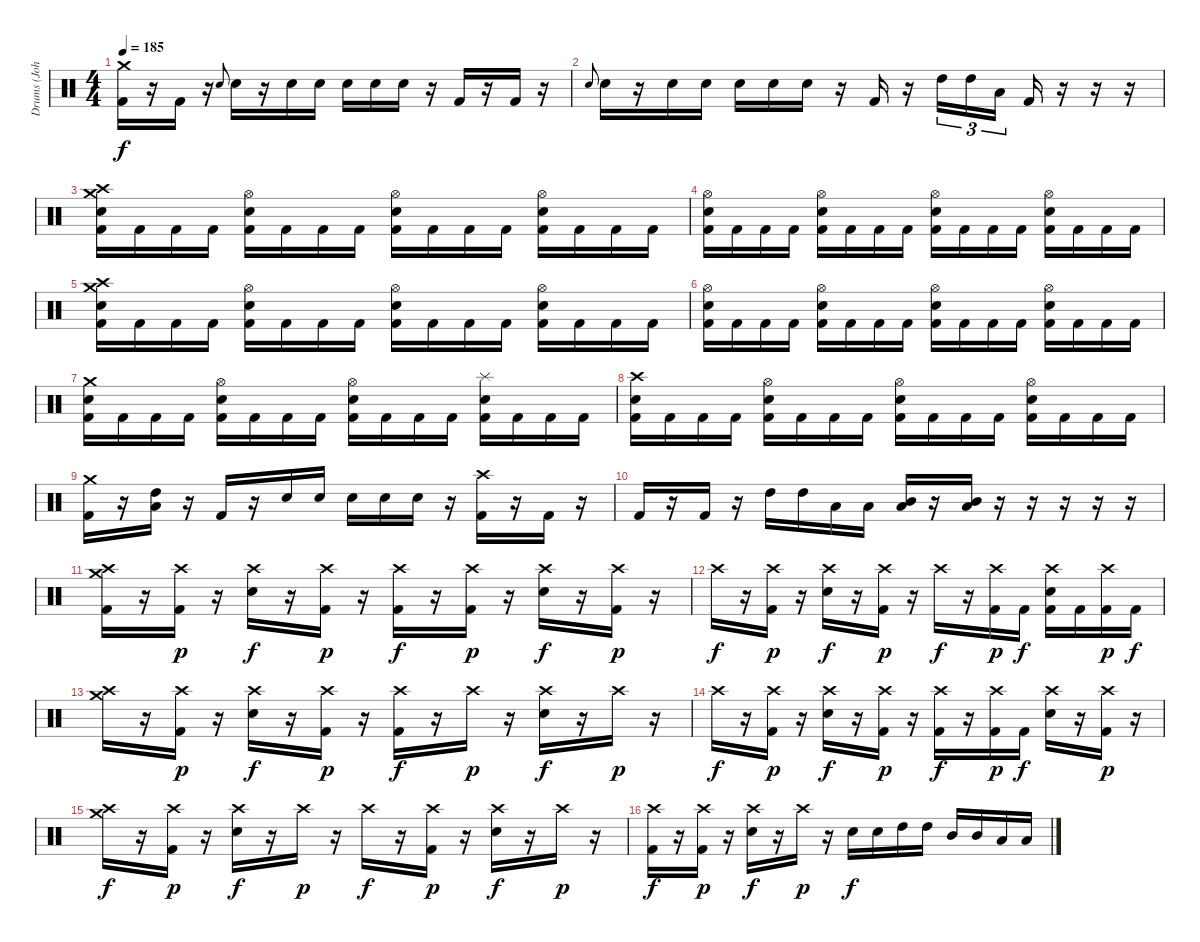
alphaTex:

\track ("Drums (Johno)" "Drums (Joh") {instrument percussion}
\staff {score}
\articulation defaults
\ts (4 4)
\tempo 185
\clef neutral
\ks c
("Crash medium (hit)" "Kick (hit) 2").16{dy f} r.16 "Kick (hit) 2".16 r.16 "Electric Snare (hit)".8{gr onbeat} "Electric Snare (hit)".16 r.16 "Electric Snare (hit)".16 "Electric Snare (hit)".16 "Electric Snare (hit)".16 "Electric Snare (hit)".16 "Electric Snare (hit)".16 r.16 "Kick (hit) 2".16 r.16 "Kick (hit) 2".16 r.16 |
"Electric Snare (hit)".8{gr onbeat} "Electric Snare (hit)".16 r.16 "Electric Snare (hit)".16 "Electric Snare (hit)".16 "Electric Snare (hit)".16 "Electric Snare (hit)".16 "Electric Snare (hit)".16 r.16 "Kick (hit) 2".16 r.16 "High Tom (hit)".16{tu (3 2)} "High Tom (hit)".16{tu (3 2)} "Low Floor Tom (hit)".16{tu (3 2)} "Kick (hit) 2".16 r.16 r.16 r.16 |
("Crash medium (hit)" "Crash high (hit)" "Electric Snare (hit)" "Kick (hit) 2").16 "Kick (hit) 2".16 "Kick (hit) 2".16 "Kick (hit) 2".16 ("Hi-Hat (open)" "Electric Snare (hit)" "Kick (hit) 2").16 "Kick (hit) 2".16 "Kick (hit) 2".16 "Kick (hit) 2".16 ("Hi-Hat (open)" "Electric Snare (hit)" "Kick (hit) 2").16 "Kick (hit) 2".16 "Kick (hit) 2".16 "Kick (hit) 2".16 ("Hi-Hat (open)" "Electric Snare (hit)" "Kick (hit) 2").16 "Kick (hit) 2".16 "Kick (hit) 2".16 "Kick (hit) 2".16 |
("Hi-Hat (open)" "Electric Snare (hit)" "Kick (hit) 2").16 "Kick (hit) 2".16 "Kick (hit) 2".16 "Kick (hit) 2".16 ("Hi-Hat (open)" "Electric Snare (hit)" "Kick (hit) 2").16 "Kick (hit) 2".16 "Kick (hit) 2".16 "Kick (hit) 2".16 ("Hi-Hat (open)" "Electric Snare (hit)" "Kick (hit) 2").16 "Kick (hit) 2".16 "Kick (hit) 2".16 "Kick (hit) 2".16 ("Hi-Hat (open)" "Electric Snare (hit)" "Kick (hit) 2").16 "Kick (hit) 2".16 "Kick (hit) 2".16 "Kick (hit) 2".16 |
("Crash high (hit)" "Crash medium (hit)" "Electric Snare (hit)" "Kick (hit) 2").16 "Kick (hit) 2".16 "Kick (hit) 2".16 "Kick (hit) 2".16 ("Hi-Hat (open)" "Electric Snare (hit)" "Kick (hit) 2").16 "Kick (hit) 2".16 "Kick (hit) 2".16 "Kick (hit) 2".16 ("Hi-Hat (open)" "Electric Snare (hit)" "Kick (hit) 2").16 "Kick (hit) 2".16 "Kick (hit) 2".16 "Kick (hit) 2".16 ("Hi-Hat (open)" "Electric Snare (hit)" "Kick (hit) 2").16 "Kick (hit) 2".16 "Kick (hit) 2".16 "Kick (hit) 2".16 |
("Hi-Hat (open)" "Electric Snare (hit)" "Kick (hit) 2").16 "Kick (hit) 2".16 "Kick (hit) 2".16 "Kick (hit) 2".16 ("Hi-Hat (open)" "Electric Snare (hit)" "Kick (hit) 2").16 "Kick (hit) 2".16 "Kick (hit) 2".16 "Kick (hit) 2".16 ("Hi-Hat (open)" "Electric Snare (hit)" "Kick (hit) 2").16 "Kick (hit) 2".16 "Kick (hit) 2".16 "Kick (hit) 2".16 ("Hi-Hat (open)" "Electric Snare (hit)" "Kick (hit) 2").16 "Kick (hit) 2".16 "Kick (hit) 2".16 "Kick (hit) 2".16 |
("Crash medium (hit)" "Electric Snare (hit)" "Kick (hit) 2").16 "Kick (hit) 2".16 "Kick (hit) 2".16 "Kick (hit) 2".16 ("Hi-Hat (open)" "Electric Snare (hit)" "Kick (hit) 2").16 "Kick (hit) 2".16 "Kick (hit) 2".16 "Kick (hit) 2".16 ("Hi-Hat (open)" "Electric Snare (hit)" "Kick (hit) 2").16 "Kick (hit) 2".16 "Kick (hit) 2".16 "Kick (hit) 2".16 ("Splash (hit)" "Electric Snare (hit)" "Kick (hit) 2").16 "Kick (hit) 2".16 "Kick (hit) 2".16 "Kick (hit) 2".16 |
("Crash high (hit)" "Electric Snare (hit)" "Kick (hit) 2").16 "Kick (hit) 2".16 "Kick (hit) 2".16 "Kick (hit) 2".16 ("Hi-Hat (open)" "Electric Snare (hit)" "Kick (hit) 2").16 "Kick (hit) 2".16 "Kick (hit) 2".16 "Kick (hit) 2".16 ("Hi-Hat (open)" "Electric Snare (hit)" "Kick (hit) 2").16 "Kick (hit) 2".16 "Kick (hit) 2".16 "Kick (hit) 2".16 ("Hi-Hat (open)" "Electric Snare (hit)" "Kick (hit) 2").16 "Kick (hit) 2".16 "Kick (hit) 2".16 "Kick (hit) 2".16 |
("Crash medium (hit)" "Kick (hit) 2").16 r.16 ("Low Floor Tom (hit)" "High Tom (hit)").16 r.16 "Kick (hit) 2".16 r.16 "Electric Snare (hit)".16 "Electric Snare (hit)".16 "Electric Snare (hit)".16 "Electric Snare (hit)".16 "Electric Snare (hit)".16 r.16 ("Crash high (hit)" "Kick (hit) 2").16 r.16 "Kick (hit) 2".16 r.16 |
"Kick (hit) 2".16 r.16 "Kick (hit) 2".16 r.16 "High Tom (hit)".16 "High Tom (hit)".16 "Low Floor Tom (hit)".16 "Low Floor Tom (hit)".16 ("Mid Tom (hit)" "Low Tom (hit)").16 r.16 ("Mid Tom (hit)" "Low Tom (hit)").16 r.16 r.16 r.16 r.16 r.16 |
("Crash medium (hit)" "Crash high (hit)" "Kick (hit) 2").16 r.16 ("Crash high (hit)" "Kick (hit) 2").16{dy p} r.16 ("Crash high (hit)" "Electric Snare (hit)").16{dy f} r.16 ("Crash high (hit)" "Kick (hit) 2").16{dy p} r.16 ("Crash high (hit)" "Kick (hit) 2").16{dy f} r.16 ("Crash high (hit)" "Kick (hit) 2").16{dy p} r.16 ("Crash high (hit)" "Electric Snare (hit)").16{dy f} r.16 ("Crash high (hit)" "Kick (hit) 2").16{dy p} r.16 |
"Crash high (hit)".16{dy f} r.16 ("Crash high (hit)" "Kick (hit) 2").16{dy p} r.16 ("Crash high (hit)" "Electric Snare (hit)").16{dy f} r.16 ("Crash high (hit)" "Kick (hit) 2").16{dy p} r.16 "Crash high (hit)".16{dy f} r.16 ("Crash high (hit)" "Kick (hit) 2").16{dy p} "Kick (hit) 2".16{dy f} ("Crash high (hit)" "Electric Snare (hit)" "Kick (hit) 2").16 "Kick (hit) 2".16 ("Crash high (hit)" "Kick (hit) 2").16{dy p} "Kick (hit) 2".16{dy f} |
("Crash medium (hit)" "Crash high (hit)").16 r.16 ("Crash high (hit)" "Kick (hit) 2").16{dy p} r.16 ("Crash high (hit)" "Electric Snare (hit)").16{dy f} r.16 ("Crash high (hit)" "Kick (hit) 2").16{dy p} r.16 ("Crash high (hit)" "Kick (hit) 2").16{dy f} r.16 "Crash high (hit)".16{dy p} r.16 ("Crash high (hit)" "Electric Snare (hit)").16{dy f} r.16 "Crash high (hit)".16{dy p} r.16 |
"Crash high (hit)".16{dy f} r.16 ("Crash high (hit)" "Kick (hit) 2").16{dy p} r.16 ("Crash high (hit)" "Electric Snare (hit)").16{dy f} r.16 ("Crash high (hit)" "Kick (hit) 2").16{dy p} r.16 ("Crash high (hit)" "Kick (hit) 2").16{dy f} r.16 ("Crash high (hit)" "Kick (hit) 2").16{dy p} "Kick (hit) 2".16{dy f} ("Crash high (hit)" "Electric Snare (hit)").16 r.16 ("Crash high (hit)" "Kick (hit) 2").16{dy p} r.16 |
("Crash medium (hit)" "Crash high (hit)").16{dy f} r.16 ("Crash high (hit)" "Kick (hit) 2").16{dy p} r.16 ("Crash high (hit)" "Electric Snare (hit)").16{dy f} r.16 "Crash high (hit)".16{dy p} r.16 "Crash high (hit)".16{dy f} r.16 ("Crash high (hit)" "Kick (hit) 2").16{dy p} r.16 ("Crash high (hit)" "Electric Snare (hit)").16{dy f} r.16 "Crash high (hit)".16{dy p} r.16 |
("Crash high (hit)" "Kick (hit) 2").16{dy f} r.16 ("Crash high (hit)" "Kick (hit) 2").16{dy p} r.16 ("Crash high (hit)" "Electric Snare (hit)").16{dy f} r.16 "Crash high (hit)".16{dy p} r.16 "Electric Snare (hit)".16{dy f} "Electric Snare (hit)".16 "High Tom (hit)".16 "High Tom (hit)".16 "Mid Tom (hit)".16 "Mid Tom (hit)".16 "Low Floor Tom (hit)".16 "Low Floor Tom (hit)".16
